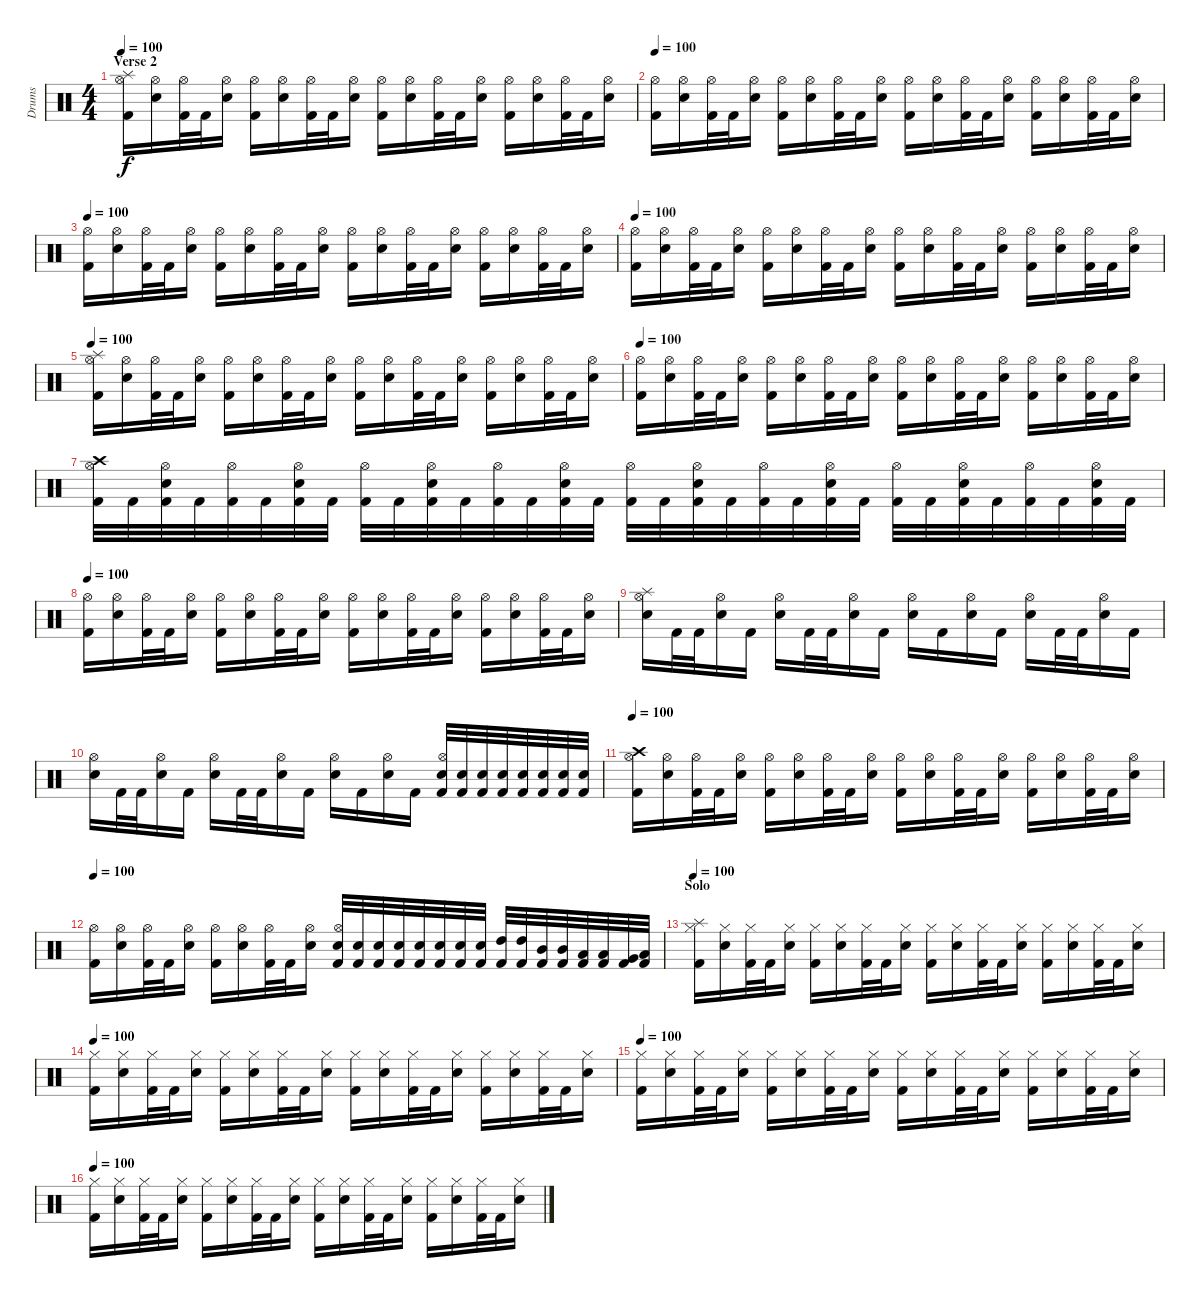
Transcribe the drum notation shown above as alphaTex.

\track ("Drums" "Drums") {instrument percussion}
\staff {score}
\articulation defaults
\ts (4 4)
\section ("" "Verse 2")
\tempo 100
\clef neutral
\ks c
("Kick (hit) 2" "Hi-Hat (open)" "Splash (hit)").16{dy f} ("Snare (hit) 2" "Hi-Hat (open)").16 ("Kick (hit) 2" "Hi-Hat (open)").32 "Kick (hit) 2".32 ("Snare (hit) 2" "Hi-Hat (open)").16 ("Kick (hit) 2" "Hi-Hat (open)").16 ("Snare (hit) 2" "Hi-Hat (open)").16 ("Kick (hit) 2" "Hi-Hat (open)").32 "Kick (hit) 2".32 ("Snare (hit) 2" "Hi-Hat (open)").16 ("Kick (hit) 2" "Hi-Hat (open)").16 ("Snare (hit) 2" "Hi-Hat (open)").16 ("Kick (hit) 2" "Hi-Hat (open)").32 "Kick (hit) 2".32 ("Snare (hit) 2" "Hi-Hat (open)").16 ("Kick (hit) 2" "Hi-Hat (open)").16 ("Snare (hit) 2" "Hi-Hat (open)").16 ("Kick (hit) 2" "Hi-Hat (open)").32 "Kick (hit) 2".32 ("Snare (hit) 2" "Hi-Hat (open)").16 |
\tempo 100
("Kick (hit) 2" "Hi-Hat (open)").16 ("Snare (hit) 2" "Hi-Hat (open)").16 ("Kick (hit) 2" "Hi-Hat (open)").32 "Kick (hit) 2".32 ("Snare (hit) 2" "Hi-Hat (open)").16 ("Kick (hit) 2" "Hi-Hat (open)").16 ("Snare (hit) 2" "Hi-Hat (open)").16 ("Kick (hit) 2" "Hi-Hat (open)").32 "Kick (hit) 2".32 ("Snare (hit) 2" "Hi-Hat (open)").16 ("Kick (hit) 2" "Hi-Hat (open)").16 ("Snare (hit) 2" "Hi-Hat (open)").16 ("Kick (hit) 2" "Hi-Hat (open)").32 "Kick (hit) 2".32 ("Snare (hit) 2" "Hi-Hat (open)").16 ("Kick (hit) 2" "Hi-Hat (open)").16 ("Snare (hit) 2" "Hi-Hat (open)").16 ("Kick (hit) 2" "Hi-Hat (open)").32 "Kick (hit) 2".32 ("Snare (hit) 2" "Hi-Hat (open)").16 |
\tempo 100
("Kick (hit) 2" "Hi-Hat (open)").16 ("Snare (hit) 2" "Hi-Hat (open)").16 ("Kick (hit) 2" "Hi-Hat (open)").32 "Kick (hit) 2".32 ("Snare (hit) 2" "Hi-Hat (open)").16 ("Kick (hit) 2" "Hi-Hat (open)").16 ("Snare (hit) 2" "Hi-Hat (open)").16 ("Kick (hit) 2" "Hi-Hat (open)").32 "Kick (hit) 2".32 ("Snare (hit) 2" "Hi-Hat (open)").16 ("Kick (hit) 2" "Hi-Hat (open)").16 ("Snare (hit) 2" "Hi-Hat (open)").16 ("Kick (hit) 2" "Hi-Hat (open)").32 "Kick (hit) 2".32 ("Snare (hit) 2" "Hi-Hat (open)").16 ("Kick (hit) 2" "Hi-Hat (open)").16 ("Snare (hit) 2" "Hi-Hat (open)").16 ("Kick (hit) 2" "Hi-Hat (open)").32 "Kick (hit) 2".32 ("Snare (hit) 2" "Hi-Hat (open)").16 |
\tempo 100
("Kick (hit) 2" "Hi-Hat (open)").16 ("Snare (hit) 2" "Hi-Hat (open)").16 ("Kick (hit) 2" "Hi-Hat (open)").32 "Kick (hit) 2".32 ("Snare (hit) 2" "Hi-Hat (open)").16 ("Kick (hit) 2" "Hi-Hat (open)").16 ("Snare (hit) 2" "Hi-Hat (open)").16 ("Kick (hit) 2" "Hi-Hat (open)").32 "Kick (hit) 2".32 ("Snare (hit) 2" "Hi-Hat (open)").16 ("Kick (hit) 2" "Hi-Hat (open)").16 ("Snare (hit) 2" "Hi-Hat (open)").16 ("Kick (hit) 2" "Hi-Hat (open)").32 "Kick (hit) 2".32 ("Snare (hit) 2" "Hi-Hat (open)").16 ("Kick (hit) 2" "Hi-Hat (open)").16 ("Snare (hit) 2" "Hi-Hat (open)").16 ("Kick (hit) 2" "Hi-Hat (open)").32 "Kick (hit) 2".32 ("Snare (hit) 2" "Hi-Hat (open)").16 |
\tempo 100
("Kick (hit) 2" "Hi-Hat (open)" "Splash (hit)").16 ("Snare (hit) 2" "Hi-Hat (open)").16 ("Kick (hit) 2" "Hi-Hat (open)").32 "Kick (hit) 2".32 ("Snare (hit) 2" "Hi-Hat (open)").16 ("Kick (hit) 2" "Hi-Hat (open)").16 ("Snare (hit) 2" "Hi-Hat (open)").16 ("Kick (hit) 2" "Hi-Hat (open)").32 "Kick (hit) 2".32 ("Snare (hit) 2" "Hi-Hat (open)").16 ("Kick (hit) 2" "Hi-Hat (open)").16 ("Snare (hit) 2" "Hi-Hat (open)").16 ("Kick (hit) 2" "Hi-Hat (open)").32 "Kick (hit) 2".32 ("Snare (hit) 2" "Hi-Hat (open)").16 ("Kick (hit) 2" "Hi-Hat (open)").16 ("Snare (hit) 2" "Hi-Hat (open)").16 ("Kick (hit) 2" "Hi-Hat (open)").32 "Kick (hit) 2".32 ("Snare (hit) 2" "Hi-Hat (open)").16 |
\tempo 100
("Kick (hit) 2" "Hi-Hat (open)").16 ("Snare (hit) 2" "Hi-Hat (open)").16 ("Kick (hit) 2" "Hi-Hat (open)").32 "Kick (hit) 2".32 ("Snare (hit) 2" "Hi-Hat (open)").16 ("Kick (hit) 2" "Hi-Hat (open)").16 ("Snare (hit) 2" "Hi-Hat (open)").16 ("Kick (hit) 2" "Hi-Hat (open)").32 "Kick (hit) 2".32 ("Snare (hit) 2" "Hi-Hat (open)").16 ("Kick (hit) 2" "Hi-Hat (open)").16 ("Snare (hit) 2" "Hi-Hat (open)").16 ("Kick (hit) 2" "Hi-Hat (open)").32 "Kick (hit) 2".32 ("Snare (hit) 2" "Hi-Hat (open)").16 ("Kick (hit) 2" "Hi-Hat (open)").16 ("Snare (hit) 2" "Hi-Hat (open)").16 ("Kick (hit) 2" "Hi-Hat (open)").32 "Kick (hit) 2".32 ("Snare (hit) 2" "Hi-Hat (open)").16 |
("Kick (hit) 2" "Hi-Hat (open)" "Crash high (hit)").32 "Kick (hit) 2".32 ("Kick (hit) 2" "Snare (hit) 2" "Hi-Hat (open)").32 "Kick (hit) 2".32 ("Kick (hit) 2" "Hi-Hat (open)").32 "Kick (hit) 2".32 ("Kick (hit) 2" "Snare (hit) 2" "Hi-Hat (open)").32 "Kick (hit) 2".32 ("Kick (hit) 2" "Hi-Hat (open)").32 "Kick (hit) 2".32 ("Kick (hit) 2" "Snare (hit) 2" "Hi-Hat (open)").32 "Kick (hit) 2".32 ("Kick (hit) 2" "Hi-Hat (open)").32 "Kick (hit) 2".32 ("Kick (hit) 2" "Snare (hit) 2" "Hi-Hat (open)").32 "Kick (hit) 2".32 ("Kick (hit) 2" "Hi-Hat (open)").32 "Kick (hit) 2".32 ("Kick (hit) 2" "Snare (hit) 2" "Hi-Hat (open)").32 "Kick (hit) 2".32 ("Kick (hit) 2" "Hi-Hat (open)").32 "Kick (hit) 2".32 ("Kick (hit) 2" "Snare (hit) 2" "Hi-Hat (open)").32 "Kick (hit) 2".32 ("Kick (hit) 2" "Hi-Hat (open)").32 "Kick (hit) 2".32 ("Kick (hit) 2" "Snare (hit) 2" "Hi-Hat (open)").32 "Kick (hit) 2".32 ("Kick (hit) 2" "Hi-Hat (open)").32 "Kick (hit) 2".32 ("Kick (hit) 2" "Snare (hit) 2" "Hi-Hat (open)").32 "Kick (hit) 2".32 |
\tempo 100
("Kick (hit) 2" "Hi-Hat (open)").16 ("Snare (hit) 2" "Hi-Hat (open)").16 ("Kick (hit) 2" "Hi-Hat (open)").32 "Kick (hit) 2".32 ("Snare (hit) 2" "Hi-Hat (open)").16 ("Kick (hit) 2" "Hi-Hat (open)").16 ("Snare (hit) 2" "Hi-Hat (open)").16 ("Kick (hit) 2" "Hi-Hat (open)").32 "Kick (hit) 2".32 ("Snare (hit) 2" "Hi-Hat (open)").16 ("Kick (hit) 2" "Hi-Hat (open)").16 ("Snare (hit) 2" "Hi-Hat (open)").16 ("Kick (hit) 2" "Hi-Hat (open)").32 "Kick (hit) 2".32 ("Snare (hit) 2" "Hi-Hat (open)").16 ("Kick (hit) 2" "Hi-Hat (open)").16 ("Snare (hit) 2" "Hi-Hat (open)").16 ("Kick (hit) 2" "Hi-Hat (open)").32 "Kick (hit) 2".32 ("Snare (hit) 2" "Hi-Hat (open)").16 |
\section ("" "")
("Snare (hit) 2" "Hi-Hat (open)" "Splash (hit)").16 "Kick (hit) 2".32 "Kick (hit) 2".32 ("Snare (hit) 2" "Hi-Hat (open)").16 "Kick (hit) 2".16 ("Snare (hit) 2" "Hi-Hat (open)").16 "Kick (hit) 2".32 "Kick (hit) 2".32 ("Snare (hit) 2" "Hi-Hat (open)").16 "Kick (hit) 2".16 ("Snare (hit) 2" "Hi-Hat (open)").16 "Kick (hit) 2".16 ("Snare (hit) 2" "Hi-Hat (open)").16 "Kick (hit) 2".16 ("Snare (hit) 2" "Hi-Hat (open)").16 "Kick (hit) 2".32 "Kick (hit) 2".32 ("Snare (hit) 2" "Hi-Hat (open)").16 "Kick (hit) 2".16 |
("Snare (hit) 2" "Hi-Hat (open)").16 "Kick (hit) 2".32 "Kick (hit) 2".32 ("Snare (hit) 2" "Hi-Hat (open)").16 "Kick (hit) 2".16 ("Snare (hit) 2" "Hi-Hat (open)").16 "Kick (hit) 2".32 "Kick (hit) 2".32 ("Snare (hit) 2" "Hi-Hat (open)").16 "Kick (hit) 2".16 ("Snare (hit) 2" "Hi-Hat (open)").16 "Kick (hit) 2".16 ("Snare (hit) 2" "Hi-Hat (open)").16 "Kick (hit) 2".16 ("Kick (hit) 2" "Snare (hit) 2" "Hi-Hat (open)").32 ("Kick (hit) 2" "Snare (hit) 2").32 ("Kick (hit) 2" "Snare (hit) 2").32 ("Kick (hit) 2" "Snare (hit) 2").32 ("Kick (hit) 2" "Snare (hit) 2").32 ("Kick (hit) 2" "Snare (hit) 2").32 ("Kick (hit) 2" "Snare (hit) 2").32 ("Kick (hit) 2" "Snare (hit) 2").32 |
\tempo 100
("Kick (hit) 2" "Hi-Hat (open)" "Crash high (hit)").16 ("Snare (hit) 2" "Hi-Hat (open)").16 ("Kick (hit) 2" "Hi-Hat (open)").32 "Kick (hit) 2".32 ("Snare (hit) 2" "Hi-Hat (open)").16 ("Kick (hit) 2" "Hi-Hat (open)").16 ("Snare (hit) 2" "Hi-Hat (open)").16 ("Kick (hit) 2" "Hi-Hat (open)").32 "Kick (hit) 2".32 ("Snare (hit) 2" "Hi-Hat (open)").16 ("Kick (hit) 2" "Hi-Hat (open)").16 ("Snare (hit) 2" "Hi-Hat (open)").16 ("Kick (hit) 2" "Hi-Hat (open)").32 "Kick (hit) 2".32 ("Snare (hit) 2" "Hi-Hat (open)").16 ("Kick (hit) 2" "Hi-Hat (open)").16 ("Snare (hit) 2" "Hi-Hat (open)").16 ("Kick (hit) 2" "Hi-Hat (open)").32 "Kick (hit) 2".32 ("Snare (hit) 2" "Hi-Hat (open)").16 |
\tempo 100
("Kick (hit) 2" "Hi-Hat (open)").16 ("Snare (hit) 2" "Hi-Hat (open)").16 ("Kick (hit) 2" "Hi-Hat (open)").32 "Kick (hit) 2".32 ("Snare (hit) 2" "Hi-Hat (open)").16 ("Kick (hit) 2" "Hi-Hat (open)").16 ("Snare (hit) 2" "Hi-Hat (open)").16 ("Kick (hit) 2" "Hi-Hat (open)").32 "Kick (hit) 2".32 ("Snare (hit) 2" "Hi-Hat (open)").16 ("Kick (hit) 2" "Snare (hit) 2" "Hi-Hat (open)").32 ("Kick (hit) 2" "Snare (hit) 2").32 ("Kick (hit) 2" "Snare (hit) 2").32 ("Kick (hit) 2" "Snare (hit) 2").32 ("Kick (hit) 2" "Snare (hit) 2").32 ("Kick (hit) 2" "Snare (hit) 2").32 ("Kick (hit) 2" "Snare (hit) 2").32 ("Kick (hit) 2" "Snare (hit) 2").32 ("Kick (hit) 2" "High Tom (hit)").32 ("Kick (hit) 2" "High Tom (hit)").32 ("Kick (hit) 2" "Mid Tom (hit)").32 ("Kick (hit) 2" "Mid Tom (hit)").32 ("Kick (hit) 2" "Low Tom (hit)").32 ("Kick (hit) 2" "Low Tom (hit)").32 ("Kick (hit) 2" "Very Low Tom (hit)").32 ("Kick (hit) 2" "Low Floor Tom (hit)").32 |
\section ("" "Solo")
\tempo 100
("Kick (hit) 2" "Hi-Hat (closed)" "Splash (hit)").16 ("Snare (hit) 2" "Hi-Hat (closed)").16 ("Kick (hit) 2" "Hi-Hat (closed)").32 "Kick (hit) 2".32 ("Snare (hit) 2" "Hi-Hat (closed)").16 ("Kick (hit) 2" "Hi-Hat (closed)").16 ("Snare (hit) 2" "Hi-Hat (closed)").16 ("Kick (hit) 2" "Hi-Hat (closed)").32 "Kick (hit) 2".32 ("Snare (hit) 2" "Hi-Hat (closed)").16 ("Kick (hit) 2" "Hi-Hat (closed)").16 ("Snare (hit) 2" "Hi-Hat (closed)").16 ("Kick (hit) 2" "Hi-Hat (closed)").32 "Kick (hit) 2".32 ("Snare (hit) 2" "Hi-Hat (closed)").16 ("Kick (hit) 2" "Hi-Hat (closed)").16 ("Snare (hit) 2" "Hi-Hat (closed)").16 ("Kick (hit) 2" "Hi-Hat (closed)").32 "Kick (hit) 2".32 ("Snare (hit) 2" "Hi-Hat (closed)").16 |
\tempo 100
("Kick (hit) 2" "Hi-Hat (closed)").16 ("Snare (hit) 2" "Hi-Hat (closed)").16 ("Kick (hit) 2" "Hi-Hat (closed)").32 "Kick (hit) 2".32 ("Snare (hit) 2" "Hi-Hat (closed)").16 ("Kick (hit) 2" "Hi-Hat (closed)").16 ("Snare (hit) 2" "Hi-Hat (closed)").16 ("Kick (hit) 2" "Hi-Hat (closed)").32 "Kick (hit) 2".32 ("Snare (hit) 2" "Hi-Hat (closed)").16 ("Kick (hit) 2" "Hi-Hat (closed)").16 ("Snare (hit) 2" "Hi-Hat (closed)").16 ("Kick (hit) 2" "Hi-Hat (closed)").32 "Kick (hit) 2".32 ("Snare (hit) 2" "Hi-Hat (closed)").16 ("Kick (hit) 2" "Hi-Hat (closed)").16 ("Snare (hit) 2" "Hi-Hat (closed)").16 ("Kick (hit) 2" "Hi-Hat (closed)").32 "Kick (hit) 2".32 ("Snare (hit) 2" "Hi-Hat (closed)").16 |
\tempo 100
("Kick (hit) 2" "Hi-Hat (closed)").16 ("Snare (hit) 2" "Hi-Hat (closed)").16 ("Kick (hit) 2" "Hi-Hat (closed)").32 "Kick (hit) 2".32 ("Snare (hit) 2" "Hi-Hat (closed)").16 ("Kick (hit) 2" "Hi-Hat (closed)").16 ("Snare (hit) 2" "Hi-Hat (closed)").16 ("Kick (hit) 2" "Hi-Hat (closed)").32 "Kick (hit) 2".32 ("Snare (hit) 2" "Hi-Hat (closed)").16 ("Kick (hit) 2" "Hi-Hat (closed)").16 ("Snare (hit) 2" "Hi-Hat (closed)").16 ("Kick (hit) 2" "Hi-Hat (closed)").32 "Kick (hit) 2".32 ("Snare (hit) 2" "Hi-Hat (closed)").16 ("Kick (hit) 2" "Hi-Hat (closed)").16 ("Snare (hit) 2" "Hi-Hat (closed)").16 ("Kick (hit) 2" "Hi-Hat (closed)").32 "Kick (hit) 2".32 ("Snare (hit) 2" "Hi-Hat (closed)").16 |
\tempo 100
("Kick (hit) 2" "Hi-Hat (closed)").16 ("Snare (hit) 2" "Hi-Hat (closed)").16 ("Kick (hit) 2" "Hi-Hat (closed)").32 "Kick (hit) 2".32 ("Snare (hit) 2" "Hi-Hat (closed)").16 ("Kick (hit) 2" "Hi-Hat (closed)").16 ("Snare (hit) 2" "Hi-Hat (closed)").16 ("Kick (hit) 2" "Hi-Hat (closed)").32 "Kick (hit) 2".32 ("Snare (hit) 2" "Hi-Hat (closed)").16 ("Kick (hit) 2" "Hi-Hat (closed)").16 ("Snare (hit) 2" "Hi-Hat (closed)").16 ("Kick (hit) 2" "Hi-Hat (closed)").32 "Kick (hit) 2".32 ("Snare (hit) 2" "Hi-Hat (closed)").16 ("Kick (hit) 2" "Hi-Hat (closed)").16 ("Snare (hit) 2" "Hi-Hat (closed)").16 ("Kick (hit) 2" "Hi-Hat (closed)").32 "Kick (hit) 2".32 ("Snare (hit) 2" "Hi-Hat (closed)").16
